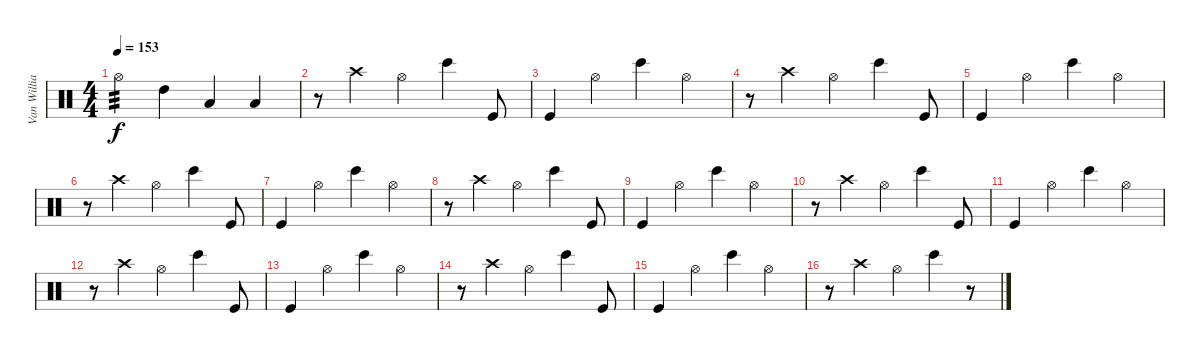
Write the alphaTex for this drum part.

\track ("Van Williams" "Van Willia") {instrument percussion}
\staff {score}
\articulation defaults
\ts (4 4)
\tempo 153
\clef neutral
\ks c "Hi-Hat (open)".4{tp 3 dy f} "High Tom (hit)".4 "Low Tom (hit)".4 "Low Floor Tom (hit)".4
|
r.8 "Crash high (hit)".4 "Hi-Hat (open)".4 "Bongo High (hit)".4 "Kick (hit)".8 |
"Kick (hit)".4 "Hi-Hat (open)".4 "Bongo High (hit)".4 "Hi-Hat (open)".4 |
r.8 "Crash high (hit)".4 "Hi-Hat (open)".4 "Bongo High (hit)".4 "Kick (hit)".8 |
"Kick (hit)".4 "Hi-Hat (open)".4 "Bongo High (hit)".4 "Hi-Hat (open)".4 |
r.8 "Crash high (hit)".4 "Hi-Hat (open)".4 "Bongo High (hit)".4 "Kick (hit)".8 |
"Kick (hit)".4 "Hi-Hat (open)".4 "Bongo High (hit)".4 "Hi-Hat (open)".4 |
r.8 "Crash high (hit)".4 "Hi-Hat (open)".4 "Bongo High (hit)".4 "Kick (hit)".8 |
"Kick (hit)".4 "Hi-Hat (open)".4 "Bongo High (hit)".4 "Hi-Hat (open)".4 |
r.8 "Crash high (hit)".4 "Hi-Hat (open)".4 "Bongo High (hit)".4 "Kick (hit)".8 |
"Kick (hit)".4 "Hi-Hat (open)".4 "Bongo High (hit)".4 "Hi-Hat (open)".4 |
r.8 "Crash high (hit)".4 "Hi-Hat (open)".4 "Bongo High (hit)".4 "Kick (hit)".8 |
"Kick (hit)".4 "Hi-Hat (open)".4 "Bongo High (hit)".4 "Hi-Hat (open)".4 |
r.8 "Crash high (hit)".4 "Hi-Hat (open)".4 "Bongo High (hit)".4 "Kick (hit)".8 |
"Kick (hit)".4 "Hi-Hat (open)".4 "Bongo High (hit)".4 "Hi-Hat (open)".4 |
r.8 "Crash high (hit)".4 "Hi-Hat (open)".4 "Bongo High (hit)".4 r.8
